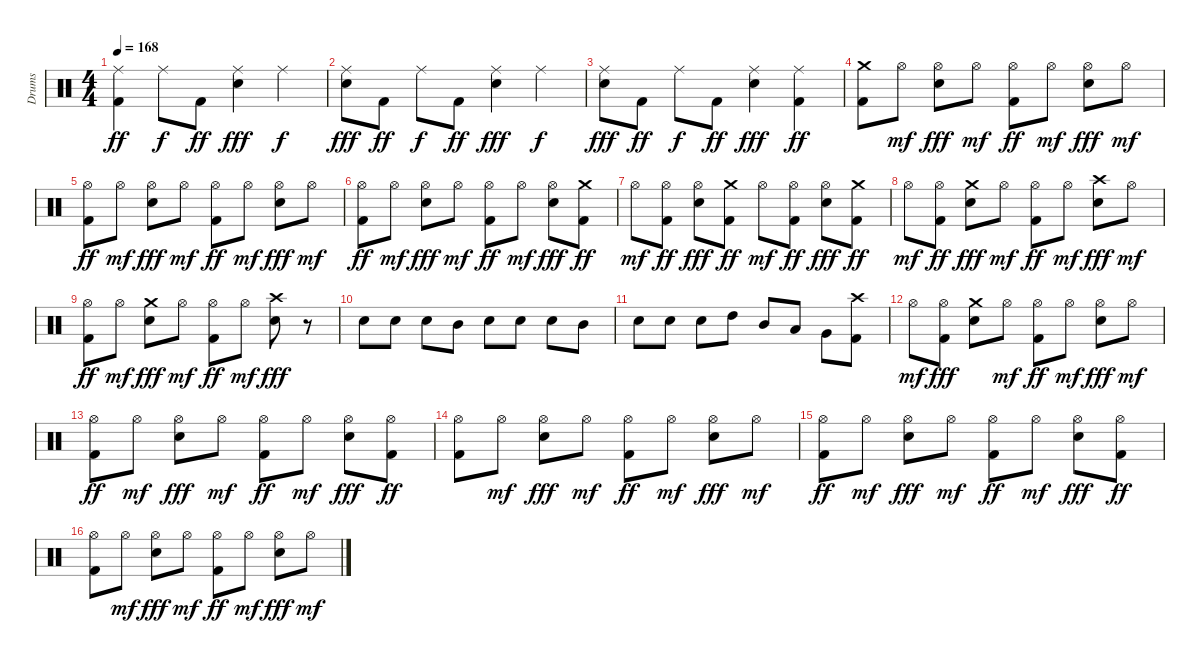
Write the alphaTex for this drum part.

\track ("Drums" "Drums") {instrument percussion}
\staff {score}
\articulation defaults
\ts (4 4)
\tempo 168
\clef neutral
\ks c
("Kick (hit) 2" "Ride (middle)").4{dy ff} "Ride (middle)".8{dy f} "Kick (hit) 2".8{dy ff} ("Snare (hit) 2" "Ride (middle)").4{dy fff} "Ride (middle)".4{dy f} |
("Snare (hit) 2" "Ride (middle)").8{dy fff} "Kick (hit) 2".8{dy ff} "Ride (middle)".8{dy f} "Kick (hit) 2".8{dy ff} ("Snare (hit) 2" "Ride (middle)").4{dy fff} "Ride (middle)".4{dy f} |
("Snare (hit) 2" "Ride (middle)").8{dy fff} "Kick (hit) 2".8{dy ff} "Ride (middle)".8{dy f} "Kick (hit) 2".8{dy ff} ("Snare (hit) 2" "Ride (middle)").4{dy fff} ("Kick (hit) 2" "Ride (middle)").4{dy ff} |
("Kick (hit) 2" "Crash medium (hit)").8 "Hi-Hat (open)".8{dy mf} ("Hi-Hat (open)" "Snare (hit) 2").8{dy fff} "Hi-Hat (open)".8{dy mf} ("Hi-Hat (open)" "Kick (hit) 2").8{dy ff} "Hi-Hat (open)".8{dy mf} ("Hi-Hat (open)" "Snare (hit) 2").8{dy fff} "Hi-Hat (open)".8{dy mf} |
("Hi-Hat (open)" "Kick (hit) 2").8{dy ff} "Hi-Hat (open)".8{dy mf} ("Hi-Hat (open)" "Snare (hit) 2").8{dy fff} "Hi-Hat (open)".8{dy mf} ("Hi-Hat (open)" "Kick (hit) 2").8{dy ff} "Hi-Hat (open)".8{dy mf} ("Hi-Hat (open)" "Snare (hit) 2").8{dy fff} "Hi-Hat (open)".8{dy mf} |
("Hi-Hat (open)" "Kick (hit) 2").8{dy ff} "Hi-Hat (open)".8{dy mf} ("Hi-Hat (open)" "Snare (hit) 2").8{dy fff} "Hi-Hat (open)".8{dy mf} ("Hi-Hat (open)" "Kick (hit) 2").8{dy ff} "Hi-Hat (open)".8{dy mf} ("Hi-Hat (open)" "Snare (hit) 2").8{dy fff} ("Kick (hit) 2" "Crash medium (hit)").8{dy ff} |
"Hi-Hat (open)".8{dy mf} ("Hi-Hat (open)" "Kick (hit) 2").8{dy ff} ("Hi-Hat (open)" "Snare (hit) 2").8{dy fff} ("Kick (hit) 2" "Crash medium (hit)").8{dy ff} "Hi-Hat (open)".8{dy mf} ("Hi-Hat (open)" "Kick (hit) 2").8{dy ff} ("Hi-Hat (open)" "Snare (hit) 2").8{dy fff} ("Kick (hit) 2" "Crash medium (hit)").8{dy ff} |
"Hi-Hat (open)".8{dy mf} ("Hi-Hat (open)" "Kick (hit) 2").8{dy ff} ("Snare (hit) 2" "Crash medium (hit)").8{dy fff} "Hi-Hat (open)".8{dy mf} ("Hi-Hat (open)" "Kick (hit) 2").8{dy ff} "Hi-Hat (open)".8{dy mf} ("Snare (hit) 2" "Crash high (hit)").8{dy fff} "Hi-Hat (open)".8{dy mf} |
("Hi-Hat (open)" "Kick (hit) 2").8{dy ff} "Hi-Hat (open)".8{dy mf} ("Snare (hit) 2" "Crash medium (hit)").8{dy fff} "Hi-Hat (open)".8{dy mf} ("Hi-Hat (open)" "Kick (hit) 2").8{dy ff} "Hi-Hat (open)".8{dy mf} ("Snare (hit) 2" "Crash high (hit)").8{dy fff} r.8 |
"Snare (hit) 2".8 "Snare (hit) 2".8 "Snare (hit) 2".8 "Mid Tom (hit)".8 "Snare (hit) 2".8 "Snare (hit) 2".8 "Snare (hit) 2".8 "Mid Tom (hit)".8 |
"Snare (hit) 2".8 "Snare (hit) 2".8 "Snare (hit) 2".8 "High Tom (hit)".8 "Mid Tom (hit)".8 "Low Tom (hit)".8 "Very Low Tom (hit)".8 ("Kick (hit) 2" "Crash high (hit)").8 |
"Hi-Hat (open)".8{dy mf} ("Hi-Hat (open)" "Kick (hit) 2").8{dy fff} ("Snare (hit) 2" "Crash medium (hit)").8 "Hi-Hat (open)".8{dy mf} ("Hi-Hat (open)" "Kick (hit) 2").8{dy ff} "Hi-Hat (open)".8{dy mf} ("Hi-Hat (open)" "Snare (hit) 2").8{dy fff} "Hi-Hat (open)".8{dy mf} |
("Hi-Hat (open)" "Kick (hit) 2").8{dy ff} "Hi-Hat (open)".8{dy mf} ("Hi-Hat (open)" "Snare (hit) 2").8{dy fff} "Hi-Hat (open)".8{dy mf} ("Hi-Hat (open)" "Kick (hit) 2").8{dy ff} "Hi-Hat (open)".8{dy mf} ("Hi-Hat (open)" "Snare (hit) 2").8{dy fff} ("Hi-Hat (open)" "Kick (hit) 2").8{dy ff} |
("Hi-Hat (open)" "Kick (hit) 2").8 "Hi-Hat (open)".8{dy mf} ("Hi-Hat (open)" "Snare (hit) 2").8{dy fff} "Hi-Hat (open)".8{dy mf} ("Hi-Hat (open)" "Kick (hit) 2").8{dy ff} "Hi-Hat (open)".8{dy mf} ("Hi-Hat (open)" "Snare (hit) 2").8{dy fff} "Hi-Hat (open)".8{dy mf} |
("Hi-Hat (open)" "Kick (hit) 2").8{dy ff} "Hi-Hat (open)".8{dy mf} ("Hi-Hat (open)" "Snare (hit) 2").8{dy fff} "Hi-Hat (open)".8{dy mf} ("Hi-Hat (open)" "Kick (hit) 2").8{dy ff} "Hi-Hat (open)".8{dy mf} ("Hi-Hat (open)" "Snare (hit) 2").8{dy fff} ("Hi-Hat (open)" "Kick (hit) 2").8{dy ff} |
("Hi-Hat (open)" "Kick (hit) 2").8 "Hi-Hat (open)".8{dy mf} ("Hi-Hat (open)" "Snare (hit) 2").8{dy fff} "Hi-Hat (open)".8{dy mf} ("Hi-Hat (open)" "Kick (hit) 2").8{dy ff} "Hi-Hat (open)".8{dy mf} ("Hi-Hat (open)" "Snare (hit) 2").8{dy fff} "Hi-Hat (open)".8{dy mf}
